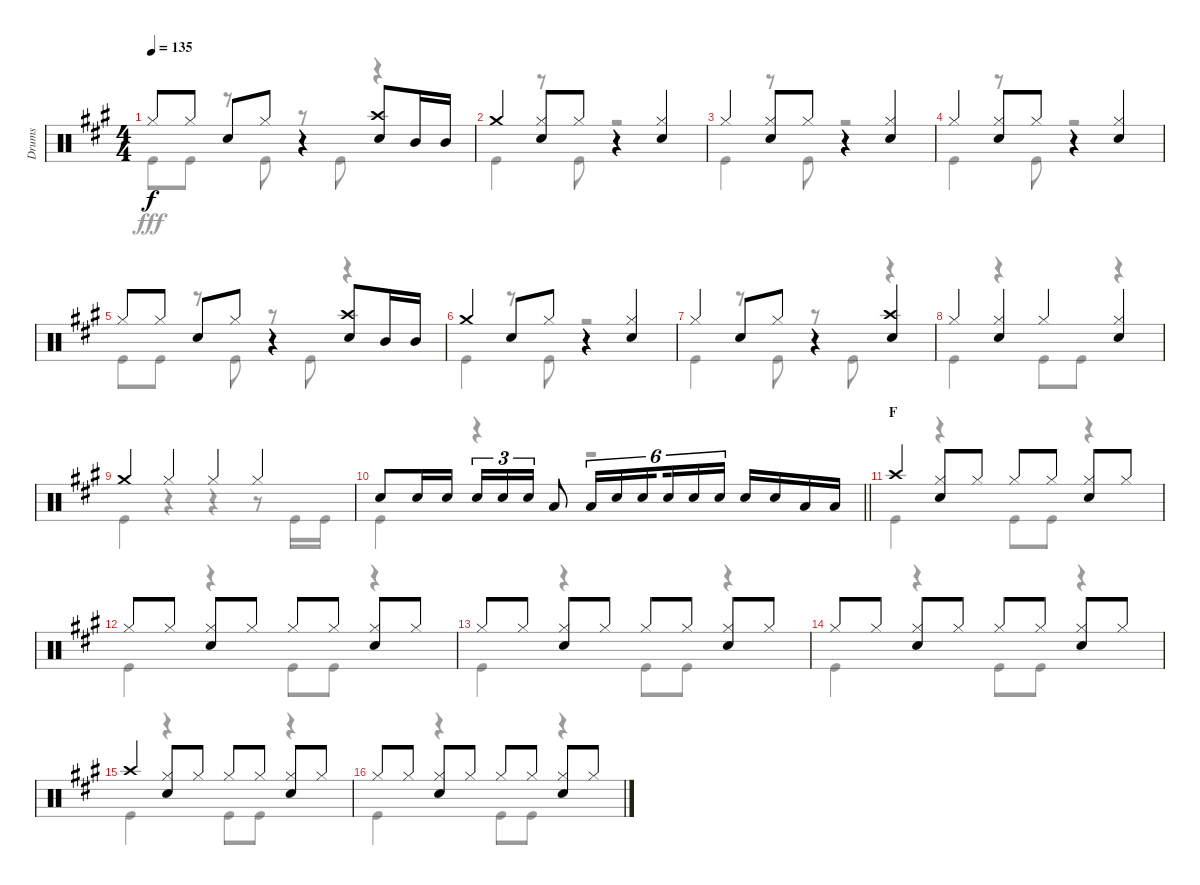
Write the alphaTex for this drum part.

\track ("Drums" "Drums") {instrument percussion}
\staff {score}
\articulation defaults
\voice
\ts (4 4)
\tempo 135
\clef neutral
\ks a "Hi-Hat (closed)".8{dy f} "Hi-Hat (closed)".8 "Snare (hit) 2".8 "Hi-Hat (closed)".8
r.4 ("Crash high (hit)" "Snare (hit) 2").8 "Mid Tom (hit)".16 "Mid Tom (hit)".16 |
"Crash medium (hit)".4 ("Hi-Hat (closed)" "Snare (hit) 2").8 "Hi-Hat (closed)".8 r.4 ("Hi-Hat (closed)" "Snare (hit) 2").4 |
"Hi-Hat (closed)".4 ("Hi-Hat (closed)" "Snare (hit) 2").8 "Hi-Hat (closed)".8 r.4 ("Hi-Hat (closed)" "Snare (hit) 2").4 |
"Hi-Hat (closed)".4 ("Hi-Hat (closed)" "Snare (hit) 2").8 "Hi-Hat (closed)".8 r.4 ("Hi-Hat (closed)" "Snare (hit) 2").4 |
"Hi-Hat (closed)".8 "Hi-Hat (closed)".8 "Snare (hit) 2".8 "Hi-Hat (closed)".8 r.4 ("Crash high (hit)" "Snare (hit) 2").8 "Mid Tom (hit)".16 "Mid Tom (hit)".16 |
"Crash medium (hit)".4 "Snare (hit) 2".8 "Hi-Hat (closed)".8 r.4 ("Hi-Hat (closed)" "Snare (hit) 2").4 |
"Hi-Hat (closed)".4 "Snare (hit) 2".8 "Hi-Hat (closed)".8 r.4 ("Crash high (hit)" "Snare (hit) 2").4 |
"Hi-Hat (closed)".4 ("Hi-Hat (closed)" "Snare (hit) 2").4 "Hi-Hat (closed)".4 ("Hi-Hat (closed)" "Snare (hit) 2").4 |
"Crash medium (hit)".4 "Hi-Hat (closed)".4 "Hi-Hat (closed)".4 "Hi-Hat (closed)".4 |
\barLineRight lightlight "Snare (hit) 2".8 "Snare (hit) 2".16 "Snare (hit) 2".16 "Snare (hit) 2".16{tu (3 2)} "Snare (hit) 2".16{tu (3 2)} "Snare (hit) 2".16{tu (3 2)} "Low Tom (hit)".8 "Low Tom (hit)".16{tu (6 4)} "Snare (hit) 2".16{tu (6 4)} "Snare (hit) 2".16{tu (6 4) beam splitsecondary} "Snare (hit) 2".16{tu (6 4)} "Snare (hit) 2".16{tu (6 4)} "Snare (hit) 2".16{tu (6 4)} "Snare (hit) 2".16 "Snare (hit) 2".16 "Low Tom (hit)".16 "Low Tom (hit)".16
|
\section ("" "F")
"Crash high (hit)".4 ("Hi-Hat (closed)" "Snare (hit) 2").8 "Hi-Hat (closed)".8 "Hi-Hat (closed)".8 "Hi-Hat (closed)".8 ("Hi-Hat (closed)" "Snare (hit) 2").8 "Hi-Hat (closed)".8 |
"Hi-Hat (closed)".8 "Hi-Hat (closed)".8 ("Hi-Hat (closed)" "Snare (hit) 2").8 "Hi-Hat (closed)".8 "Hi-Hat (closed)".8 "Hi-Hat (closed)".8 ("Hi-Hat (closed)" "Snare (hit) 2").8 "Hi-Hat (closed)".8 |
"Hi-Hat (closed)".8 "Hi-Hat (closed)".8 ("Hi-Hat (closed)" "Snare (hit) 2").8 "Hi-Hat (closed)".8 "Hi-Hat (closed)".8 "Hi-Hat (closed)".8 ("Hi-Hat (closed)" "Snare (hit) 2").8 "Hi-Hat (closed)".8 |
"Hi-Hat (closed)".8 "Hi-Hat (closed)".8 ("Hi-Hat (closed)" "Snare (hit) 2").8 "Hi-Hat (closed)".8 "Hi-Hat (closed)".8 "Hi-Hat (closed)".8 ("Hi-Hat (closed)" "Snare (hit) 2").8 "Hi-Hat (closed)".8 |
"Crash high (hit)".4 ("Hi-Hat (closed)" "Snare (hit) 2").8 "Hi-Hat (closed)".8 "Hi-Hat (closed)".8 "Hi-Hat (closed)".8 ("Hi-Hat (closed)" "Snare (hit) 2").8 "Hi-Hat (closed)".8 |
"Hi-Hat (closed)".8 "Hi-Hat (closed)".8 ("Hi-Hat (closed)" "Snare (hit) 2").8 "Hi-Hat (closed)".8 "Hi-Hat (closed)".8 "Hi-Hat (closed)".8 ("Hi-Hat (closed)" "Snare (hit) 2").8 "Hi-Hat (closed)".8
\voice
\clef neutral
\ottava regular
\simile none
\ks a "Kick (hit)".8{dy fff} "Kick (hit)".8
r.8 "Kick (hit)".8 r.8 "Kick (hit)".8 r.4 |
"Kick (hit)".4 r.8 "Kick (hit)".8 r.2 |
"Kick (hit)".4 r.8 "Kick (hit)".8 r.2 |
"Kick (hit)".4 r.8 "Kick (hit)".8 r.2 |
"Kick (hit)".8 "Kick (hit)".8 r.8 "Kick (hit)".8 r.8 "Kick (hit)".8 r.4 |
"Kick (hit)".4 r.8 "Kick (hit)".8 r.2 |
"Kick (hit)".4 r.8 "Kick (hit)".8 r.8 "Kick (hit)".8 r.4 |
"Kick (hit)".4 r.4 "Kick (hit)".8 "Kick (hit)".8 r.4 |
"Kick (hit)".4 r.4 r.4 r.8 "Kick (hit)".16 "Kick (hit)".16 |
\barLineRight lightlight "Kick (hit)".4
r.4 r.2 |
"Kick (hit)".4 r.4 "Kick (hit)".8 "Kick (hit)".8 r.4 |
"Kick (hit)".4 r.4 "Kick (hit)".8 "Kick (hit)".8 r.4 |
"Kick (hit)".4 r.4 "Kick (hit)".8 "Kick (hit)".8 r.4 |
"Kick (hit)".4 r.4 "Kick (hit)".8 "Kick (hit)".8 r.4 |
"Kick (hit)".4 r.4 "Kick (hit)".8 "Kick (hit)".8 r.4 |
"Kick (hit)".4 r.4 "Kick (hit)".8 "Kick (hit)".8 r.4
